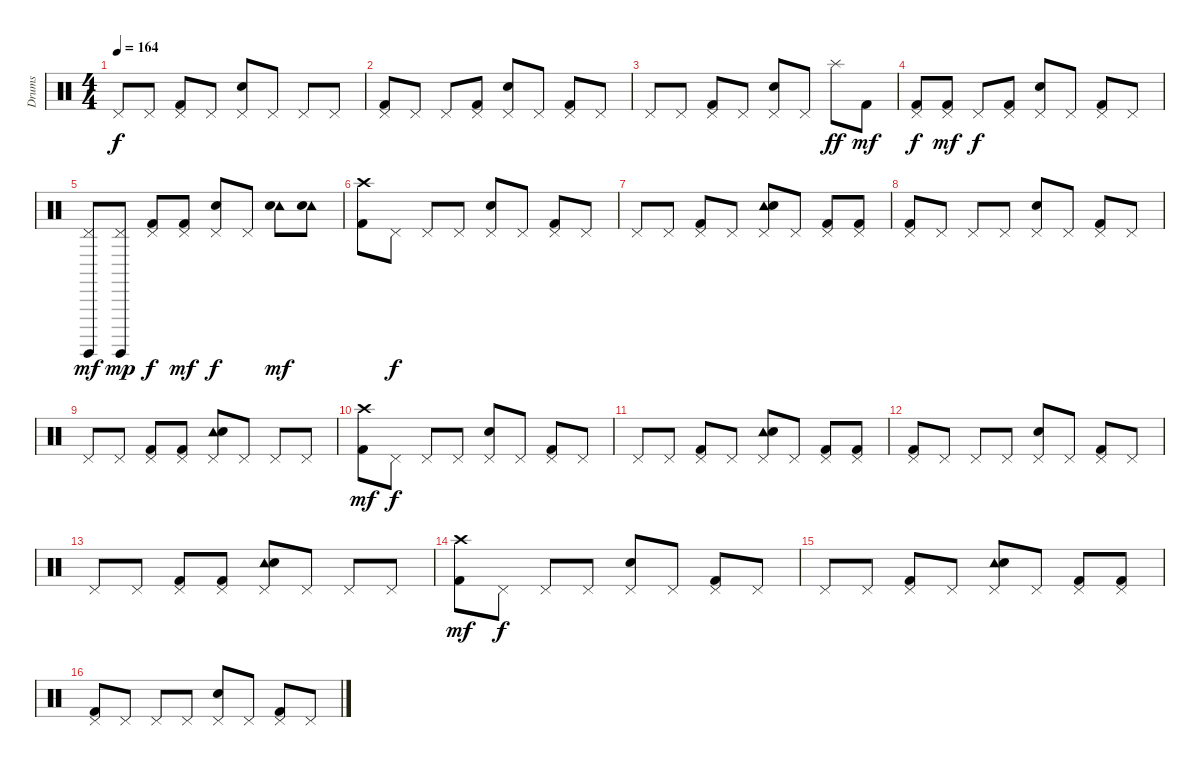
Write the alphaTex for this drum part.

\track ("Drums" "Drums") {instrument percussion}
\staff {score}
\articulation defaults
\ts (4 4)
\tempo 164
\clef neutral
\ks c "Pedal Hi-Hat (hit)".8{dy f} "Pedal Hi-Hat (hit)".8
("Pedal Hi-Hat (hit)" "Kick (hit) 2").8 "Pedal Hi-Hat (hit)".8 ("Pedal Hi-Hat (hit)" "Snare (hit) 2").8 "Pedal Hi-Hat (hit)".8 "Pedal Hi-Hat (hit)".8 "Pedal Hi-Hat (hit)".8 |
("Pedal Hi-Hat (hit)" "Kick (hit) 2").8 "Pedal Hi-Hat (hit)".8 "Pedal Hi-Hat (hit)".8 ("Pedal Hi-Hat (hit)" "Kick (hit) 2").8 ("Pedal Hi-Hat (hit)" "Snare (hit) 2").8 "Pedal Hi-Hat (hit)".8 ("Pedal Hi-Hat (hit)" "Kick (hit) 2").8 "Pedal Hi-Hat (hit)".8 |
"Pedal Hi-Hat (hit)".8 "Pedal Hi-Hat (hit)".8 ("Pedal Hi-Hat (hit)" "Kick (hit) 2").8 "Pedal Hi-Hat (hit)".8 ("Pedal Hi-Hat (hit)" "Snare (hit) 2").8 "Pedal Hi-Hat (hit)".8 "Splash (hit)".8{dy ff} "Kick (hit) 2".8{dy mf} |
("Pedal Hi-Hat (hit)" "Kick (hit) 2").8{dy f} ("Pedal Hi-Hat (hit)" "Kick (hit) 2").8{dy mf} "Pedal Hi-Hat (hit)".8{dy f} ("Pedal Hi-Hat (hit)" "Kick (hit) 2").8 ("Pedal Hi-Hat (hit)" "Snare (hit) 2").8 "Pedal Hi-Hat (hit)".8 ("Pedal Hi-Hat (hit)" "Kick (hit) 2").8 "Pedal Hi-Hat (hit)".8 |
("Pedal Hi-Hat (hit)" "Surdo (hit)").8{dy mf} ("Pedal Hi-Hat (hit)" "Surdo (hit)").8{dy mp} ("Pedal Hi-Hat (hit)" "Kick (hit) 2").8{dy f} ("Pedal Hi-Hat (hit)" "Kick (hit) 2").8{dy mf} ("Pedal Hi-Hat (hit)" "Snare (hit) 2").8{dy f} "Pedal Hi-Hat (hit)".8 ("Tambourine (hit)" "Snare (hit) 2").8{dy mf} ("Tambourine (hit)" "Snare (hit) 2").8 |
("Crash high (hit)" "Kick (hit) 2").8 "Pedal Hi-Hat (hit)".8{dy f} "Pedal Hi-Hat (hit)".8 "Pedal Hi-Hat (hit)".8 ("Pedal Hi-Hat (hit)" "Snare (hit) 2").8 "Pedal Hi-Hat (hit)".8 ("Pedal Hi-Hat (hit)" "Kick (hit) 2").8 "Pedal Hi-Hat (hit)".8 |
"Pedal Hi-Hat (hit)".8 "Pedal Hi-Hat (hit)".8 ("Pedal Hi-Hat (hit)" "Kick (hit) 2").8 "Pedal Hi-Hat (hit)".8 ("Tambourine (hit)" "Pedal Hi-Hat (hit)" "Snare (hit) 2").8 "Pedal Hi-Hat (hit)".8 ("Pedal Hi-Hat (hit)" "Kick (hit) 2").8 ("Pedal Hi-Hat (hit)" "Kick (hit) 2").8 |
("Pedal Hi-Hat (hit)" "Kick (hit) 2").8 "Pedal Hi-Hat (hit)".8 "Pedal Hi-Hat (hit)".8 "Pedal Hi-Hat (hit)".8 ("Pedal Hi-Hat (hit)" "Snare (hit) 2").8 "Pedal Hi-Hat (hit)".8 ("Pedal Hi-Hat (hit)" "Kick (hit) 2").8 "Pedal Hi-Hat (hit)".8 |
"Pedal Hi-Hat (hit)".8 "Pedal Hi-Hat (hit)".8 ("Pedal Hi-Hat (hit)" "Kick (hit) 2").8 ("Pedal Hi-Hat (hit)" "Kick (hit) 2").8 ("Tambourine (hit)" "Pedal Hi-Hat (hit)" "Snare (hit) 2").8 "Pedal Hi-Hat (hit)".8 "Pedal Hi-Hat (hit)".8 "Pedal Hi-Hat (hit)".8 |
("Crash high (hit)" "Kick (hit) 2").8{dy mf} "Pedal Hi-Hat (hit)".8{dy f} "Pedal Hi-Hat (hit)".8 "Pedal Hi-Hat (hit)".8 ("Pedal Hi-Hat (hit)" "Snare (hit) 2").8 "Pedal Hi-Hat (hit)".8 ("Pedal Hi-Hat (hit)" "Kick (hit) 2").8 "Pedal Hi-Hat (hit)".8 |
"Pedal Hi-Hat (hit)".8 "Pedal Hi-Hat (hit)".8 ("Pedal Hi-Hat (hit)" "Kick (hit) 2").8 "Pedal Hi-Hat (hit)".8 ("Tambourine (hit)" "Pedal Hi-Hat (hit)" "Snare (hit) 2").8 "Pedal Hi-Hat (hit)".8 ("Pedal Hi-Hat (hit)" "Kick (hit) 2").8 ("Pedal Hi-Hat (hit)" "Kick (hit) 2").8 |
("Pedal Hi-Hat (hit)" "Kick (hit) 2").8 "Pedal Hi-Hat (hit)".8 "Pedal Hi-Hat (hit)".8 "Pedal Hi-Hat (hit)".8 ("Pedal Hi-Hat (hit)" "Snare (hit) 2").8 "Pedal Hi-Hat (hit)".8 ("Pedal Hi-Hat (hit)" "Kick (hit) 2").8 "Pedal Hi-Hat (hit)".8 |
"Pedal Hi-Hat (hit)".8 "Pedal Hi-Hat (hit)".8 ("Pedal Hi-Hat (hit)" "Kick (hit) 2").8 ("Pedal Hi-Hat (hit)" "Kick (hit) 2").8 ("Tambourine (hit)" "Pedal Hi-Hat (hit)" "Snare (hit) 2").8 "Pedal Hi-Hat (hit)".8 "Pedal Hi-Hat (hit)".8 "Pedal Hi-Hat (hit)".8 |
("Crash high (hit)" "Kick (hit) 2").8{dy mf} "Pedal Hi-Hat (hit)".8{dy f} "Pedal Hi-Hat (hit)".8 "Pedal Hi-Hat (hit)".8 ("Pedal Hi-Hat (hit)" "Snare (hit) 2").8 "Pedal Hi-Hat (hit)".8 ("Pedal Hi-Hat (hit)" "Kick (hit) 2").8 "Pedal Hi-Hat (hit)".8 |
"Pedal Hi-Hat (hit)".8 "Pedal Hi-Hat (hit)".8 ("Pedal Hi-Hat (hit)" "Kick (hit) 2").8 "Pedal Hi-Hat (hit)".8 ("Tambourine (hit)" "Pedal Hi-Hat (hit)" "Snare (hit) 2").8 "Pedal Hi-Hat (hit)".8 ("Pedal Hi-Hat (hit)" "Kick (hit) 2").8 ("Pedal Hi-Hat (hit)" "Kick (hit) 2").8 |
("Pedal Hi-Hat (hit)" "Kick (hit) 2").8 "Pedal Hi-Hat (hit)".8 "Pedal Hi-Hat (hit)".8 "Pedal Hi-Hat (hit)".8 ("Pedal Hi-Hat (hit)" "Snare (hit) 2").8 "Pedal Hi-Hat (hit)".8 ("Pedal Hi-Hat (hit)" "Kick (hit) 2").8 "Pedal Hi-Hat (hit)".8
